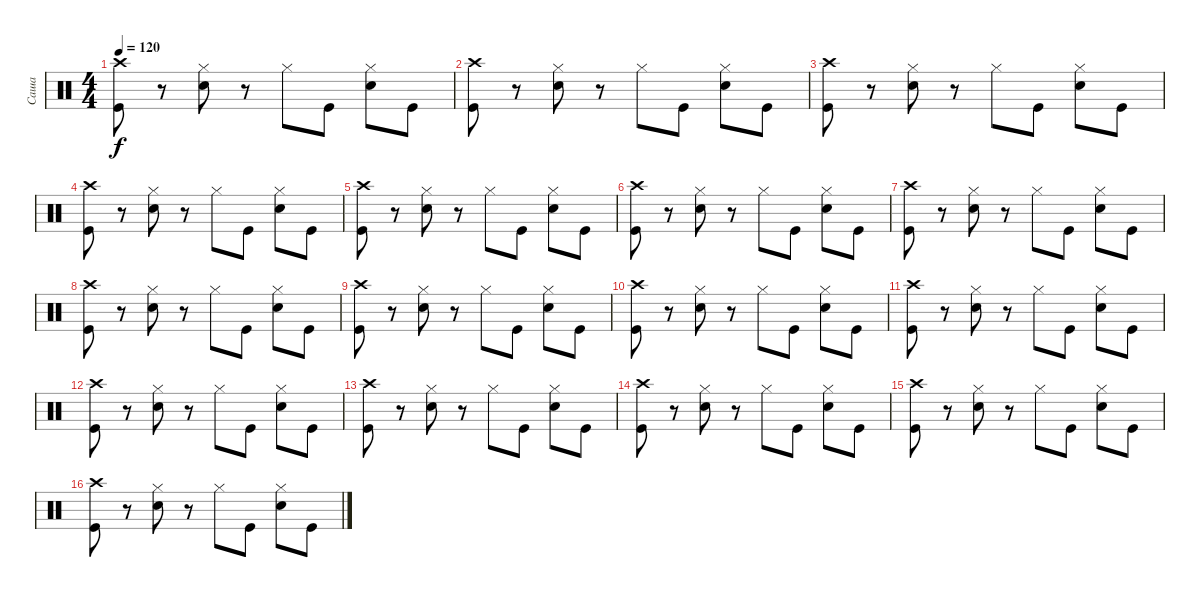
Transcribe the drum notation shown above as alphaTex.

\track ("Саша" "Саша") {instrument percussion}
\staff {score}
\articulation defaults
\ts (4 4)
\tempo 120
\clef neutral
\ks c
("Crash high (hit)" "Kick (hit)").8{dy f} r.8 ("Hi-Hat (closed)" "Snare (hit) 2").8 r.8 "Hi-Hat (closed)".8 "Kick (hit)".8 ("Hi-Hat (closed)" "Snare (hit) 2").8 "Kick (hit)".8 |
("Crash high (hit)" "Kick (hit)").8 r.8 ("Hi-Hat (closed)" "Snare (hit) 2").8 r.8 "Hi-Hat (closed)".8 "Kick (hit)".8 ("Hi-Hat (closed)" "Snare (hit) 2").8 "Kick (hit)".8 |
("Crash high (hit)" "Kick (hit)").8 r.8 ("Hi-Hat (closed)" "Snare (hit) 2").8 r.8 "Hi-Hat (closed)".8 "Kick (hit)".8 ("Hi-Hat (closed)" "Snare (hit) 2").8 "Kick (hit)".8 |
("Crash high (hit)" "Kick (hit)").8 r.8 ("Hi-Hat (closed)" "Snare (hit) 2").8 r.8 "Hi-Hat (closed)".8 "Kick (hit)".8 ("Hi-Hat (closed)" "Snare (hit) 2").8 "Kick (hit)".8 |
("Crash high (hit)" "Kick (hit)").8 r.8 ("Hi-Hat (closed)" "Snare (hit) 2").8 r.8 "Hi-Hat (closed)".8 "Kick (hit)".8 ("Hi-Hat (closed)" "Snare (hit) 2").8 "Kick (hit)".8 |
("Crash high (hit)" "Kick (hit)").8 r.8 ("Hi-Hat (closed)" "Snare (hit) 2").8 r.8 "Hi-Hat (closed)".8 "Kick (hit)".8 ("Hi-Hat (closed)" "Snare (hit) 2").8 "Kick (hit)".8 |
("Crash high (hit)" "Kick (hit)").8 r.8 ("Hi-Hat (closed)" "Snare (hit) 2").8 r.8 "Hi-Hat (closed)".8 "Kick (hit)".8 ("Hi-Hat (closed)" "Snare (hit) 2").8 "Kick (hit)".8 |
("Crash high (hit)" "Kick (hit)").8 r.8 ("Hi-Hat (closed)" "Snare (hit) 2").8 r.8 "Hi-Hat (closed)".8 "Kick (hit)".8 ("Hi-Hat (closed)" "Snare (hit) 2").8 "Kick (hit)".8 |
("Crash high (hit)" "Kick (hit)").8 r.8 ("Hi-Hat (closed)" "Snare (hit) 2").8 r.8 "Hi-Hat (closed)".8 "Kick (hit)".8 ("Hi-Hat (closed)" "Snare (hit) 2").8 "Kick (hit)".8 |
("Crash high (hit)" "Kick (hit)").8 r.8 ("Hi-Hat (closed)" "Snare (hit) 2").8 r.8 "Hi-Hat (closed)".8 "Kick (hit)".8 ("Hi-Hat (closed)" "Snare (hit) 2").8 "Kick (hit)".8 |
("Crash high (hit)" "Kick (hit)").8 r.8 ("Hi-Hat (closed)" "Snare (hit) 2").8 r.8 "Hi-Hat (closed)".8 "Kick (hit)".8 ("Hi-Hat (closed)" "Snare (hit) 2").8 "Kick (hit)".8 |
("Crash high (hit)" "Kick (hit)").8 r.8 ("Hi-Hat (closed)" "Snare (hit) 2").8 r.8 "Hi-Hat (closed)".8 "Kick (hit)".8 ("Hi-Hat (closed)" "Snare (hit) 2").8 "Kick (hit)".8 |
("Crash high (hit)" "Kick (hit)").8 r.8 ("Hi-Hat (closed)" "Snare (hit) 2").8 r.8 "Hi-Hat (closed)".8 "Kick (hit)".8 ("Hi-Hat (closed)" "Snare (hit) 2").8 "Kick (hit)".8 |
("Crash high (hit)" "Kick (hit)").8 r.8 ("Hi-Hat (closed)" "Snare (hit) 2").8 r.8 "Hi-Hat (closed)".8 "Kick (hit)".8 ("Hi-Hat (closed)" "Snare (hit) 2").8 "Kick (hit)".8 |
("Crash high (hit)" "Kick (hit)").8 r.8 ("Hi-Hat (closed)" "Snare (hit) 2").8 r.8 "Hi-Hat (closed)".8 "Kick (hit)".8 ("Hi-Hat (closed)" "Snare (hit) 2").8 "Kick (hit)".8 |
("Crash high (hit)" "Kick (hit)").8 r.8 ("Hi-Hat (closed)" "Snare (hit) 2").8 r.8 "Hi-Hat (closed)".8 "Kick (hit)".8 ("Hi-Hat (closed)" "Snare (hit) 2").8 "Kick (hit)".8
